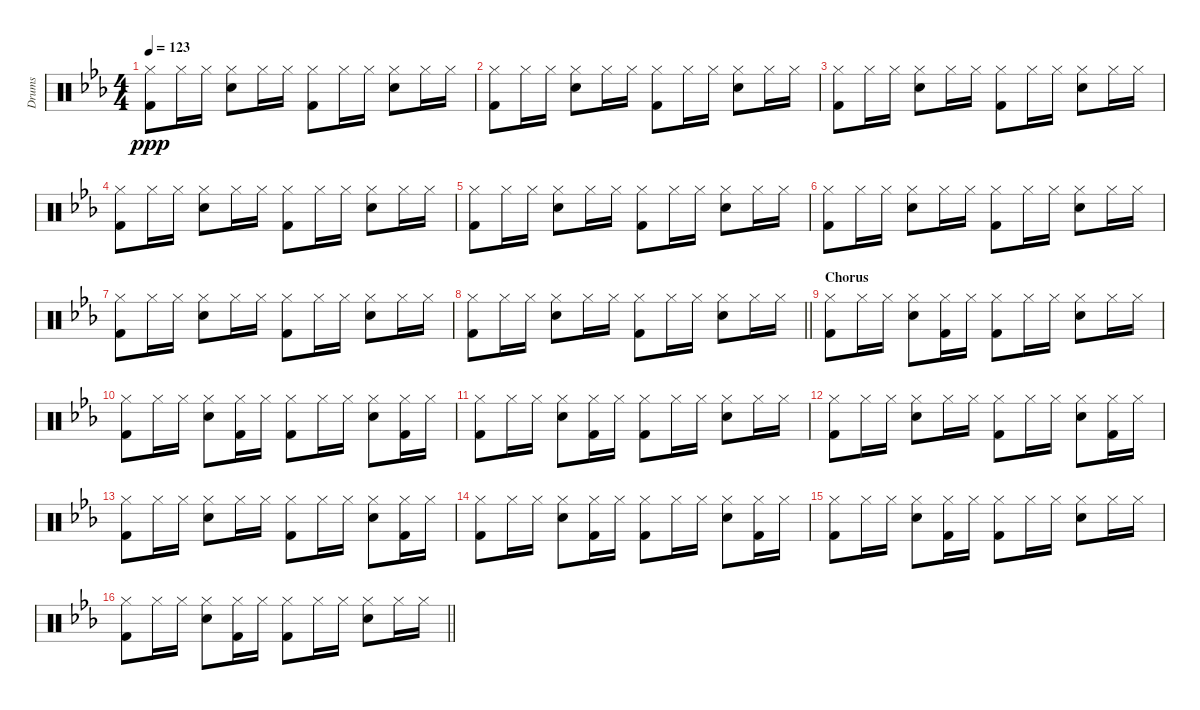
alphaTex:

\track ("Drums" "Drums") {instrument percussion}
\staff {score}
\articulation defaults
\ts (4 4)
\tempo 123
\clef neutral
\ks eb
("Hi-Hat (closed)" "Kick (hit) 2").8{dy ppp} "Hi-Hat (closed)".16 "Hi-Hat (closed)".16 ("Hi-Hat (closed)" "Electric Snare (hit)").8 "Hi-Hat (closed)".16 "Hi-Hat (closed)".16 ("Hi-Hat (closed)" "Kick (hit) 2").8 "Hi-Hat (closed)".16 "Hi-Hat (closed)".16 ("Hi-Hat (closed)" "Electric Snare (hit)").8 "Hi-Hat (closed)".16 "Hi-Hat (closed)".16 |
("Hi-Hat (closed)" "Kick (hit) 2").8 "Hi-Hat (closed)".16 "Hi-Hat (closed)".16 ("Hi-Hat (closed)" "Electric Snare (hit)").8 "Hi-Hat (closed)".16 "Hi-Hat (closed)".16 ("Hi-Hat (closed)" "Kick (hit) 2").8 "Hi-Hat (closed)".16 "Hi-Hat (closed)".16 ("Hi-Hat (closed)" "Electric Snare (hit)").8 "Hi-Hat (closed)".16 "Hi-Hat (closed)".16 |
("Hi-Hat (closed)" "Kick (hit) 2").8 "Hi-Hat (closed)".16 "Hi-Hat (closed)".16 ("Hi-Hat (closed)" "Electric Snare (hit)").8 "Hi-Hat (closed)".16 "Hi-Hat (closed)".16 ("Hi-Hat (closed)" "Kick (hit) 2").8 "Hi-Hat (closed)".16 "Hi-Hat (closed)".16 ("Hi-Hat (closed)" "Electric Snare (hit)").8 "Hi-Hat (closed)".16 "Hi-Hat (closed)".16 |
("Hi-Hat (closed)" "Kick (hit) 2").8 "Hi-Hat (closed)".16 "Hi-Hat (closed)".16 ("Hi-Hat (closed)" "Electric Snare (hit)").8 "Hi-Hat (closed)".16 "Hi-Hat (closed)".16 ("Hi-Hat (closed)" "Kick (hit) 2").8 "Hi-Hat (closed)".16 "Hi-Hat (closed)".16 ("Hi-Hat (closed)" "Electric Snare (hit)").8 "Hi-Hat (closed)".16 "Hi-Hat (closed)".16 |
("Hi-Hat (closed)" "Kick (hit) 2").8 "Hi-Hat (closed)".16 "Hi-Hat (closed)".16 ("Hi-Hat (closed)" "Electric Snare (hit)").8 "Hi-Hat (closed)".16 "Hi-Hat (closed)".16 ("Hi-Hat (closed)" "Kick (hit) 2").8 "Hi-Hat (closed)".16 "Hi-Hat (closed)".16 ("Hi-Hat (closed)" "Electric Snare (hit)").8 "Hi-Hat (closed)".16 "Hi-Hat (closed)".16 |
("Hi-Hat (closed)" "Kick (hit) 2").8 "Hi-Hat (closed)".16 "Hi-Hat (closed)".16 ("Hi-Hat (closed)" "Electric Snare (hit)").8 "Hi-Hat (closed)".16 "Hi-Hat (closed)".16 ("Hi-Hat (closed)" "Kick (hit) 2").8 "Hi-Hat (closed)".16 "Hi-Hat (closed)".16 ("Hi-Hat (closed)" "Electric Snare (hit)").8 "Hi-Hat (closed)".16 "Hi-Hat (closed)".16 |
("Hi-Hat (closed)" "Kick (hit) 2").8 "Hi-Hat (closed)".16 "Hi-Hat (closed)".16 ("Hi-Hat (closed)" "Electric Snare (hit)").8 "Hi-Hat (closed)".16 "Hi-Hat (closed)".16 ("Hi-Hat (closed)" "Kick (hit) 2").8 "Hi-Hat (closed)".16 "Hi-Hat (closed)".16 ("Hi-Hat (closed)" "Electric Snare (hit)").8 "Hi-Hat (closed)".16 "Hi-Hat (closed)".16 |
\barLineRight lightlight
("Hi-Hat (closed)" "Kick (hit) 2").8 "Hi-Hat (closed)".16 "Hi-Hat (closed)".16 ("Hi-Hat (closed)" "Electric Snare (hit)").8 "Hi-Hat (closed)".16 "Hi-Hat (closed)".16 ("Hi-Hat (closed)" "Kick (hit) 2").8 "Hi-Hat (closed)".16 "Hi-Hat (closed)".16 ("Hi-Hat (closed)" "Electric Snare (hit)").8 "Hi-Hat (closed)".16 "Hi-Hat (closed)".16 |
\section ("" "Chorus")
("Hi-Hat (closed)" "Kick (hit) 2").8 "Hi-Hat (closed)".16 "Hi-Hat (closed)".16 ("Hi-Hat (closed)" "Electric Snare (hit)").8 ("Hi-Hat (closed)" "Kick (hit) 2").16 "Hi-Hat (closed)".16 ("Hi-Hat (closed)" "Kick (hit) 2").8 "Hi-Hat (closed)".16 "Hi-Hat (closed)".16 ("Hi-Hat (closed)" "Electric Snare (hit)").8 "Hi-Hat (closed)".16 "Hi-Hat (closed)".16 |
("Hi-Hat (closed)" "Kick (hit) 2").8 "Hi-Hat (closed)".16 "Hi-Hat (closed)".16 ("Hi-Hat (closed)" "Electric Snare (hit)").8 ("Hi-Hat (closed)" "Kick (hit) 2").16 "Hi-Hat (closed)".16 ("Hi-Hat (closed)" "Kick (hit) 2").8 "Hi-Hat (closed)".16 "Hi-Hat (closed)".16 ("Hi-Hat (closed)" "Electric Snare (hit)").8 ("Hi-Hat (closed)" "Kick (hit) 2").16 "Hi-Hat (closed)".16 |
("Hi-Hat (closed)" "Kick (hit) 2").8 "Hi-Hat (closed)".16 "Hi-Hat (closed)".16 ("Hi-Hat (closed)" "Electric Snare (hit)").8 ("Hi-Hat (closed)" "Kick (hit) 2").16 "Hi-Hat (closed)".16 ("Hi-Hat (closed)" "Kick (hit) 2").8 "Hi-Hat (closed)".16 "Hi-Hat (closed)".16 ("Hi-Hat (closed)" "Electric Snare (hit)").8 "Hi-Hat (closed)".16 "Hi-Hat (closed)".16 |
("Hi-Hat (closed)" "Kick (hit) 2").8 "Hi-Hat (closed)".16 "Hi-Hat (closed)".16 ("Hi-Hat (closed)" "Electric Snare (hit)").8 "Hi-Hat (closed)".16 "Hi-Hat (closed)".16 ("Hi-Hat (closed)" "Kick (hit) 2").8 "Hi-Hat (closed)".16 "Hi-Hat (closed)".16 ("Hi-Hat (closed)" "Electric Snare (hit)").8 ("Hi-Hat (closed)" "Kick (hit) 2").16 "Hi-Hat (closed)".16 |
("Hi-Hat (closed)" "Kick (hit) 2").8 "Hi-Hat (closed)".16 "Hi-Hat (closed)".16 ("Hi-Hat (closed)" "Electric Snare (hit)").8 "Hi-Hat (closed)".16 "Hi-Hat (closed)".16 ("Hi-Hat (closed)" "Kick (hit) 2").8 "Hi-Hat (closed)".16 "Hi-Hat (closed)".16 ("Hi-Hat (closed)" "Electric Snare (hit)").8 ("Hi-Hat (closed)" "Kick (hit) 2").16 "Hi-Hat (closed)".16 |
("Hi-Hat (closed)" "Kick (hit) 2").8 "Hi-Hat (closed)".16 "Hi-Hat (closed)".16 ("Hi-Hat (closed)" "Electric Snare (hit)").8 ("Hi-Hat (closed)" "Kick (hit) 2").16 "Hi-Hat (closed)".16 ("Hi-Hat (closed)" "Kick (hit) 2").8 "Hi-Hat (closed)".16 "Hi-Hat (closed)".16 ("Hi-Hat (closed)" "Electric Snare (hit)").8 ("Hi-Hat (closed)" "Kick (hit) 2").16 "Hi-Hat (closed)".16 |
("Hi-Hat (closed)" "Kick (hit) 2").8 "Hi-Hat (closed)".16 "Hi-Hat (closed)".16 ("Hi-Hat (closed)" "Electric Snare (hit)").8 ("Hi-Hat (closed)" "Kick (hit) 2").16 "Hi-Hat (closed)".16 ("Hi-Hat (closed)" "Kick (hit) 2").8 "Hi-Hat (closed)".16 "Hi-Hat (closed)".16 ("Hi-Hat (closed)" "Electric Snare (hit)").8 "Hi-Hat (closed)".16 "Hi-Hat (closed)".16 |
\barLineRight lightlight
("Hi-Hat (closed)" "Kick (hit) 2").8 "Hi-Hat (closed)".16 "Hi-Hat (closed)".16 ("Hi-Hat (closed)" "Electric Snare (hit)").8 ("Hi-Hat (closed)" "Kick (hit) 2").16 "Hi-Hat (closed)".16 ("Hi-Hat (closed)" "Kick (hit) 2").8 "Hi-Hat (closed)".16 "Hi-Hat (closed)".16 ("Hi-Hat (closed)" "Electric Snare (hit)").8 "Hi-Hat (closed)".16 "Hi-Hat (closed)".16
